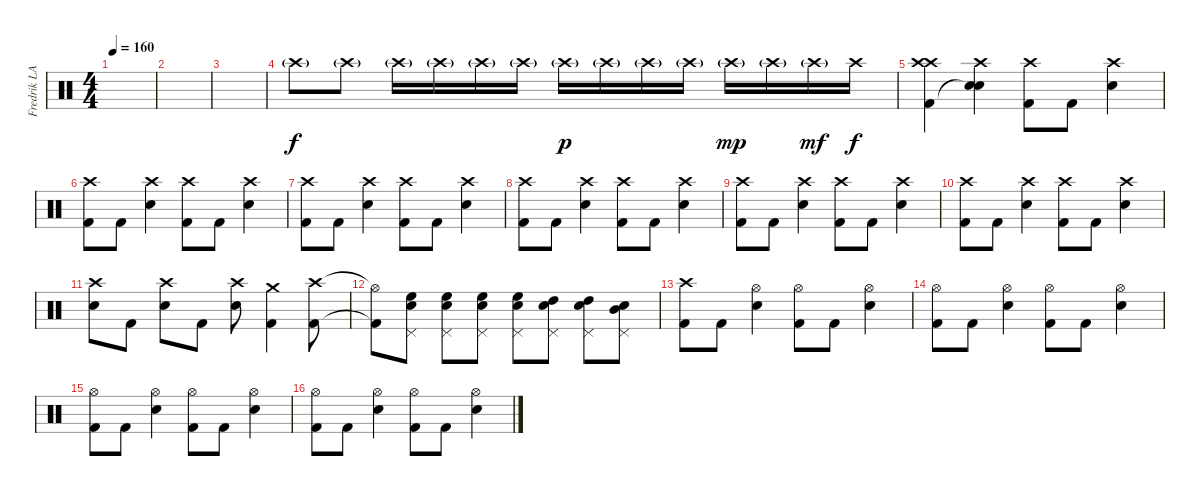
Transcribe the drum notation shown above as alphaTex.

\track ("Fredrik LARZON" "Fredrik LA") {instrument percussion}
\staff {score}
\articulation defaults
\ts (4 4)
\tempo 160
\clef neutral
\ks c
|
|
|
"Crash high (hit)"{g}.8 "Crash high (hit)"{g}.8 "Crash high (hit)"{g}.16 "Crash high (hit)"{g}.16 "Crash high (hit)"{g}.16 "Crash high (hit)"{g}.16 "Crash high (hit)"{g}.16{dy p} "Crash high (hit)"{g}.16 "Crash high (hit)"{g}.16 "Crash high (hit)"{g}.16 "Crash high (hit)"{g}.16{dy mp} "Crash high (hit)"{g}.16 "Crash high (hit)"{g}.16{dy mf} "Crash high (hit)".16{dy f} |
("Crash high (hit)" "Crash high (hit)" "Kick (hit) 2").4 ("Crash high (hit)" "Electric Snare (hit)" "Snare (hit)"{t}).4 ("Crash high (hit)" "Kick (hit) 2").8 "Kick (hit) 2".8 ("Crash high (hit)" "Electric Snare (hit)").4 |
("Crash high (hit)" "Kick (hit) 2").8 "Kick (hit) 2".8 ("Crash high (hit)" "Electric Snare (hit)").4 ("Crash high (hit)" "Kick (hit) 2").8 "Kick (hit) 2".8 ("Crash high (hit)" "Electric Snare (hit)").4 |
("Crash high (hit)" "Kick (hit) 2").8 "Kick (hit) 2".8 ("Crash high (hit)" "Electric Snare (hit)").4 ("Crash high (hit)" "Kick (hit) 2").8 "Kick (hit) 2".8 ("Crash high (hit)" "Electric Snare (hit)").4 |
("Crash high (hit)" "Kick (hit) 2").8 "Kick (hit) 2".8 ("Crash high (hit)" "Electric Snare (hit)").4 ("Crash high (hit)" "Kick (hit) 2").8 "Kick (hit) 2".8 ("Crash high (hit)" "Electric Snare (hit)").4 |
("Crash high (hit)" "Kick (hit) 2").8 "Kick (hit) 2".8 ("Crash high (hit)" "Electric Snare (hit)").4 ("Crash high (hit)" "Kick (hit) 2").8 "Kick (hit) 2".8 ("Crash high (hit)" "Electric Snare (hit)").4 |
("Crash high (hit)" "Kick (hit) 2").8 "Kick (hit) 2".8 ("Crash high (hit)" "Electric Snare (hit)").4 ("Crash high (hit)" "Kick (hit) 2").8 "Kick (hit) 2".8 ("Crash high (hit)" "Electric Snare (hit)").4 |
("Crash high (hit)" "Electric Snare (hit)").8 "Kick (hit) 2".8 ("Crash high (hit)" "Electric Snare (hit)").8 "Kick (hit) 2".8 ("Crash high (hit)" "Electric Snare (hit)").8 ("Crash medium (hit)" "Kick (hit) 2").4 ("Crash high (hit)" "Kick (hit) 2").8 |
("Hi-Hat (open)"{t} "Kick (hit) 2"{t}).8 ("Pedal Hi-Hat (hit)" "Electric Snare (hit)" "High Floor Tom (hit)").8 ("Pedal Hi-Hat (hit)" "Electric Snare (hit)" "High Floor Tom (hit)").8 ("Pedal Hi-Hat (hit)" "Electric Snare (hit)" "High Floor Tom (hit)").8 ("Pedal Hi-Hat (hit)" "Electric Snare (hit)" "High Floor Tom (hit)").8 ("Pedal Hi-Hat (hit)" "Electric Snare (hit)" "High Tom (hit)").8 ("Pedal Hi-Hat (hit)" "Electric Snare (hit)" "High Tom (hit)").8 ("Pedal Hi-Hat (hit)" "Electric Snare (hit)" "Mid Tom (hit)").8 |
("Crash high (hit)" "Kick (hit) 2").8 "Kick (hit) 2".8 ("Hi-Hat (open)" "Electric Snare (hit)").4 ("Hi-Hat (open)" "Kick (hit) 2").8 "Kick (hit) 2".8 ("Hi-Hat (open)" "Electric Snare (hit)").4 |
("Hi-Hat (open)" "Kick (hit) 2").8 "Kick (hit) 2".8 ("Hi-Hat (open)" "Electric Snare (hit)").4 ("Hi-Hat (open)" "Kick (hit) 2").8 "Kick (hit) 2".8 ("Hi-Hat (open)" "Electric Snare (hit)").4 |
("Hi-Hat (open)" "Kick (hit) 2").8 "Kick (hit) 2".8 ("Hi-Hat (open)" "Electric Snare (hit)").4 ("Hi-Hat (open)" "Kick (hit) 2").8 "Kick (hit) 2".8 ("Hi-Hat (open)" "Electric Snare (hit)").4 |
("Hi-Hat (open)" "Kick (hit) 2").8 "Kick (hit) 2".8 ("Hi-Hat (open)" "Electric Snare (hit)").4 ("Hi-Hat (open)" "Kick (hit) 2").8 "Kick (hit) 2".8 ("Hi-Hat (open)" "Electric Snare (hit)").4
